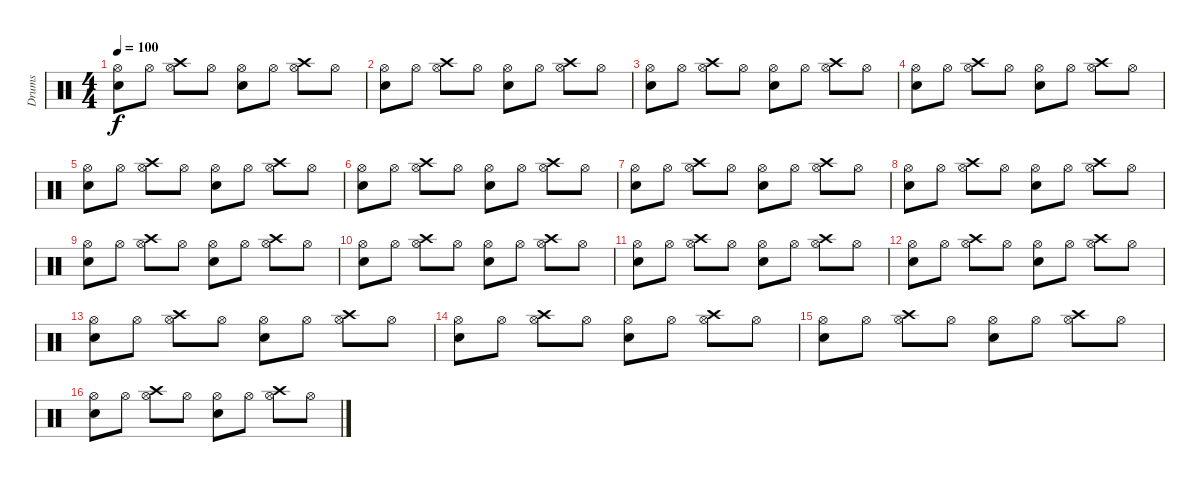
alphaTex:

\track ("Drums" "Drums") {instrument percussion}
\staff {score}
\articulation defaults
\ts (4 4)
\tempo 100
\clef neutral
\ks c
("Snare (hit) 2" "Hi-Hat (open)").8{dy f} "Hi-Hat (open)".8 ("Crash high (hit)" "Hi-Hat (open)").8 "Hi-Hat (open)".8 ("Snare (hit) 2" "Hi-Hat (open)").8 "Hi-Hat (open)".8 ("Crash high (hit)" "Hi-Hat (open)").8 "Hi-Hat (open)".8 |
("Snare (hit) 2" "Hi-Hat (open)").8 "Hi-Hat (open)".8 ("Crash high (hit)" "Hi-Hat (open)").8 "Hi-Hat (open)".8 ("Snare (hit) 2" "Hi-Hat (open)").8 "Hi-Hat (open)".8 ("Crash high (hit)" "Hi-Hat (open)").8 "Hi-Hat (open)".8 |
("Snare (hit) 2" "Hi-Hat (open)").8 "Hi-Hat (open)".8 ("Crash high (hit)" "Hi-Hat (open)").8 "Hi-Hat (open)".8 ("Snare (hit) 2" "Hi-Hat (open)").8 "Hi-Hat (open)".8 ("Crash high (hit)" "Hi-Hat (open)").8 "Hi-Hat (open)".8 |
("Snare (hit) 2" "Hi-Hat (open)").8 "Hi-Hat (open)".8 ("Crash high (hit)" "Hi-Hat (open)").8 "Hi-Hat (open)".8 ("Snare (hit) 2" "Hi-Hat (open)").8 "Hi-Hat (open)".8 ("Crash high (hit)" "Hi-Hat (open)").8 "Hi-Hat (open)".8 |
("Snare (hit) 2" "Hi-Hat (open)").8 "Hi-Hat (open)".8 ("Crash high (hit)" "Hi-Hat (open)").8 "Hi-Hat (open)".8 ("Snare (hit) 2" "Hi-Hat (open)").8 "Hi-Hat (open)".8 ("Crash high (hit)" "Hi-Hat (open)").8 "Hi-Hat (open)".8 |
("Snare (hit) 2" "Hi-Hat (open)").8 "Hi-Hat (open)".8 ("Crash high (hit)" "Hi-Hat (open)").8 "Hi-Hat (open)".8 ("Snare (hit) 2" "Hi-Hat (open)").8 "Hi-Hat (open)".8 ("Crash high (hit)" "Hi-Hat (open)").8 "Hi-Hat (open)".8 |
("Snare (hit) 2" "Hi-Hat (open)").8 "Hi-Hat (open)".8 ("Crash high (hit)" "Hi-Hat (open)").8 "Hi-Hat (open)".8 ("Snare (hit) 2" "Hi-Hat (open)").8 "Hi-Hat (open)".8 ("Crash high (hit)" "Hi-Hat (open)").8 "Hi-Hat (open)".8 |
("Snare (hit) 2" "Hi-Hat (open)").8 "Hi-Hat (open)".8 ("Crash high (hit)" "Hi-Hat (open)").8 "Hi-Hat (open)".8 ("Snare (hit) 2" "Hi-Hat (open)").8 "Hi-Hat (open)".8 ("Crash high (hit)" "Hi-Hat (open)").8 "Hi-Hat (open)".8 |
("Snare (hit) 2" "Hi-Hat (open)").8 "Hi-Hat (open)".8 ("Crash high (hit)" "Hi-Hat (open)").8 "Hi-Hat (open)".8 ("Snare (hit) 2" "Hi-Hat (open)").8 "Hi-Hat (open)".8 ("Crash high (hit)" "Hi-Hat (open)").8 "Hi-Hat (open)".8 |
("Snare (hit) 2" "Hi-Hat (open)").8 "Hi-Hat (open)".8 ("Crash high (hit)" "Hi-Hat (open)").8 "Hi-Hat (open)".8 ("Snare (hit) 2" "Hi-Hat (open)").8 "Hi-Hat (open)".8 ("Crash high (hit)" "Hi-Hat (open)").8 "Hi-Hat (open)".8 |
("Snare (hit) 2" "Hi-Hat (open)").8 "Hi-Hat (open)".8 ("Crash high (hit)" "Hi-Hat (open)").8 "Hi-Hat (open)".8 ("Snare (hit) 2" "Hi-Hat (open)").8 "Hi-Hat (open)".8 ("Crash high (hit)" "Hi-Hat (open)").8 "Hi-Hat (open)".8 |
("Snare (hit) 2" "Hi-Hat (open)").8 "Hi-Hat (open)".8 ("Crash high (hit)" "Hi-Hat (open)").8 "Hi-Hat (open)".8 ("Snare (hit) 2" "Hi-Hat (open)").8 "Hi-Hat (open)".8 ("Crash high (hit)" "Hi-Hat (open)").8 "Hi-Hat (open)".8 |
("Snare (hit) 2" "Hi-Hat (open)").8 "Hi-Hat (open)".8 ("Crash high (hit)" "Hi-Hat (open)").8 "Hi-Hat (open)".8 ("Snare (hit) 2" "Hi-Hat (open)").8 "Hi-Hat (open)".8 ("Crash high (hit)" "Hi-Hat (open)").8 "Hi-Hat (open)".8 |
("Snare (hit) 2" "Hi-Hat (open)").8 "Hi-Hat (open)".8 ("Crash high (hit)" "Hi-Hat (open)").8 "Hi-Hat (open)".8 ("Snare (hit) 2" "Hi-Hat (open)").8 "Hi-Hat (open)".8 ("Crash high (hit)" "Hi-Hat (open)").8 "Hi-Hat (open)".8 |
("Snare (hit) 2" "Hi-Hat (open)").8 "Hi-Hat (open)".8 ("Crash high (hit)" "Hi-Hat (open)").8 "Hi-Hat (open)".8 ("Snare (hit) 2" "Hi-Hat (open)").8 "Hi-Hat (open)".8 ("Crash high (hit)" "Hi-Hat (open)").8 "Hi-Hat (open)".8 |
("Snare (hit) 2" "Hi-Hat (open)").8 "Hi-Hat (open)".8 ("Crash high (hit)" "Hi-Hat (open)").8 "Hi-Hat (open)".8 ("Snare (hit) 2" "Hi-Hat (open)").8 "Hi-Hat (open)".8 ("Crash high (hit)" "Hi-Hat (open)").8 "Hi-Hat (open)".8
